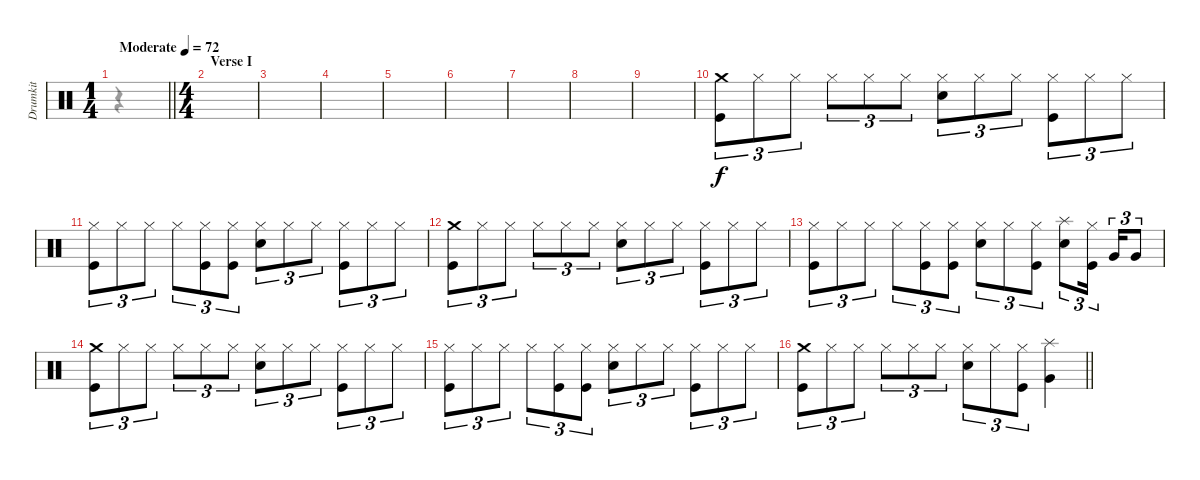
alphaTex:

\track ("Drumkit" "Drumkit") {instrument percussion}
\staff {score}
\articulation defaults
\voice
\ts (1 4)
\tempo (72 "Moderate")
\clef neutral
\barLineRight lightlight
\ks c
|
\ts (4 4)
\section ("" "Verse I")
|
|
|
|
|
|
|
|
("Kick (hit)" "Crash medium (hit)").8{tu (3 2)} "Hi-Hat (closed)".8{tu (3 2)} "Hi-Hat (closed)".8{tu (3 2)} "Hi-Hat (closed)".8{tu (3 2)} "Hi-Hat (closed)".8{tu (3 2)} "Hi-Hat (closed)".8{tu (3 2)} ("Hi-Hat (closed)" "Snare (hit) 2").8{tu (3 2)} "Hi-Hat (closed)".8{tu (3 2)} "Hi-Hat (closed)".8{tu (3 2)} ("Hi-Hat (closed)" "Kick (hit)").8{tu (3 2)} "Hi-Hat (closed)".8{tu (3 2)} "Hi-Hat (closed)".8{tu (3 2)} |
("Hi-Hat (closed)" "Kick (hit)").8{tu (3 2)} "Hi-Hat (closed)".8{tu (3 2)} "Hi-Hat (closed)".8{tu (3 2)} "Hi-Hat (closed)".8{tu (3 2)} ("Hi-Hat (closed)" "Kick (hit)").8{tu (3 2)} ("Hi-Hat (closed)" "Kick (hit)").8{tu (3 2)} ("Hi-Hat (closed)" "Snare (hit) 2").8{tu (3 2)} "Hi-Hat (closed)".8{tu (3 2)} "Hi-Hat (closed)".8{tu (3 2)} ("Hi-Hat (closed)" "Kick (hit)").8{tu (3 2)} "Hi-Hat (closed)".8{tu (3 2)} "Hi-Hat (closed)".8{tu (3 2)} |
("Kick (hit)" "Crash medium (hit)").8{tu (3 2)} "Hi-Hat (closed)".8{tu (3 2)} "Hi-Hat (closed)".8{tu (3 2)} "Hi-Hat (closed)".8{tu (3 2)} "Hi-Hat (closed)".8{tu (3 2)} "Hi-Hat (closed)".8{tu (3 2)} ("Hi-Hat (closed)" "Snare (hit) 2").8{tu (3 2)} "Hi-Hat (closed)".8{tu (3 2)} "Hi-Hat (closed)".8{tu (3 2)} ("Hi-Hat (closed)" "Kick (hit)").8{tu (3 2)} "Hi-Hat (closed)".8{tu (3 2)} "Hi-Hat (closed)".8{tu (3 2)} |
("Hi-Hat (closed)" "Kick (hit)").8{tu (3 2)} "Hi-Hat (closed)".8{tu (3 2)} "Hi-Hat (closed)".8{tu (3 2)} "Hi-Hat (closed)".8{tu (3 2)} ("Hi-Hat (closed)" "Kick (hit)").8{tu (3 2)} ("Hi-Hat (closed)" "Kick (hit)").8{tu (3 2)} ("Hi-Hat (closed)" "Snare (hit) 2").8{tu (3 2)} "Hi-Hat (closed)".8{tu (3 2)} ("Hi-Hat (closed)" "Kick (hit)").8{tu (3 2)} ("Snare (hit) 2" "Splash (hit)").8{tu (3 2)} ("Hi-Hat (closed)" "Kick (hit)").16{tu (3 2) beam splitsecondary} "Very Low Tom (hit)".16{tu (3 2)} "Very Low Tom (hit)".8{tu (3 2)} |
("Kick (hit)" "Crash medium (hit)").8{tu (3 2)} "Hi-Hat (closed)".8{tu (3 2)} "Hi-Hat (closed)".8{tu (3 2)} "Hi-Hat (closed)".8{tu (3 2)} "Hi-Hat (closed)".8{tu (3 2)} "Hi-Hat (closed)".8{tu (3 2)} ("Hi-Hat (closed)" "Snare (hit) 2").8{tu (3 2)} "Hi-Hat (closed)".8{tu (3 2)} "Hi-Hat (closed)".8{tu (3 2)} ("Hi-Hat (closed)" "Kick (hit)").8{tu (3 2)} "Hi-Hat (closed)".8{tu (3 2)} "Hi-Hat (closed)".8{tu (3 2)} |
("Hi-Hat (closed)" "Kick (hit)").8{tu (3 2)} "Hi-Hat (closed)".8{tu (3 2)} "Hi-Hat (closed)".8{tu (3 2)} "Hi-Hat (closed)".8{tu (3 2)} ("Hi-Hat (closed)" "Kick (hit)").8{tu (3 2)} ("Hi-Hat (closed)" "Kick (hit)").8{tu (3 2)} ("Hi-Hat (closed)" "Snare (hit) 2").8{tu (3 2)} "Hi-Hat (closed)".8{tu (3 2)} "Hi-Hat (closed)".8{tu (3 2)} ("Hi-Hat (closed)" "Kick (hit)").8{tu (3 2)} "Hi-Hat (closed)".8{tu (3 2)} "Hi-Hat (closed)".8{tu (3 2)} |
\barLineRight lightlight
("Kick (hit)" "Crash medium (hit)").8{tu (3 2)} "Hi-Hat (closed)".8{tu (3 2)} "Hi-Hat (closed)".8{tu (3 2)} "Hi-Hat (closed)".8{tu (3 2)} "Hi-Hat (closed)".8{tu (3 2)} "Hi-Hat (closed)".8{tu (3 2)} ("Hi-Hat (closed)" "Snare (hit) 2").8{tu (3 2)} "Hi-Hat (closed)".8{tu (3 2)} ("Hi-Hat (closed)" "Kick (hit)").8{tu (3 2)} ("Very Low Tom (hit)" "Splash (hit)").4
\voice
\clef neutral
\ottava regular
\simile none
\barLineRight lightlight
\ks c
r.4{dy f} |
|
|
|
|
|
|
|
|
|
|
|
|
|
|
\barLineRight lightlight
